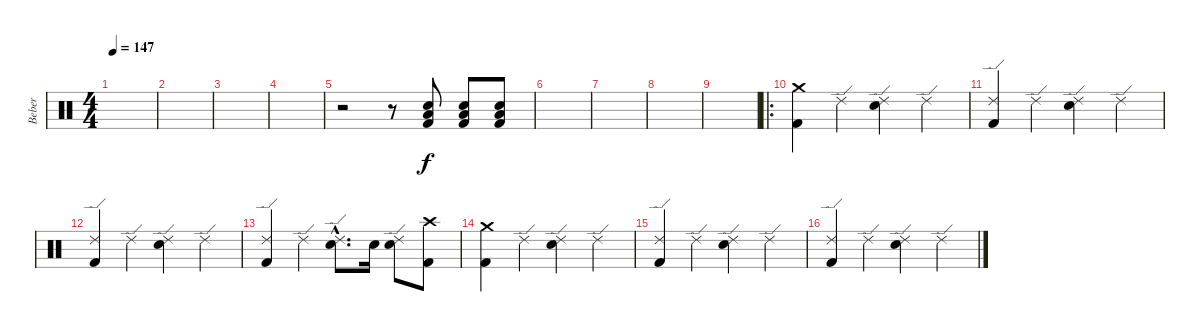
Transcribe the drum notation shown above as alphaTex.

\track ("Beber" "Beber") {instrument percussion}
\staff {score}
\articulation defaults
\ts (4 4)
\tempo 147
\clef neutral
\ks c
|
|
|
|
r.2 r.8 ("Snare (hit) 2" "Low Floor Tom (hit)" "Kick (hit) 2").8 ("Snare (hit) 2" "Low Floor Tom (hit)" "Kick (hit) 2").8 ("Snare (hit) 2" "Low Floor Tom (hit)" "Kick (hit) 2").8 |
|
|
|
|
\ro
("Crash medium (hit)" "Kick (hit) 2").4 "Ride (edge) 2".4 ("Ride (edge) 2" "Snare (hit) 2").4 "Ride (edge) 2".4 |
("Ride (edge) 2" "Kick (hit) 2").4 "Ride (edge) 2".4 ("Ride (edge) 2" "Snare (hit) 2").4 "Ride (edge) 2".4 |
("Ride (edge) 2" "Kick (hit) 2").4 "Ride (edge) 2".4 ("Ride (edge) 2" "Snare (hit) 2").4 "Ride (edge) 2".4 |
("Ride (edge) 2" "Kick (hit) 2").4 "Ride (edge) 2".4 ("Ride (edge) 2"{hac} "Snare (hit) 2"{hac}).8{d} "Snare (hit) 2".16 ("Ride (edge) 2" "Snare (hit) 2").8 ("Crash high (hit)" "Kick (hit) 2").8 |
("Crash medium (hit)" "Kick (hit) 2").4 "Ride (edge) 2".4 ("Ride (edge) 2" "Snare (hit) 2").4 "Ride (edge) 2".4 |
("Ride (edge) 2" "Kick (hit) 2").4 "Ride (edge) 2".4 ("Ride (edge) 2" "Snare (hit) 2").4 "Ride (edge) 2".4 |
("Ride (edge) 2" "Kick (hit) 2").4 "Ride (edge) 2".4 ("Ride (edge) 2" "Snare (hit) 2").4 "Ride (edge) 2".4
